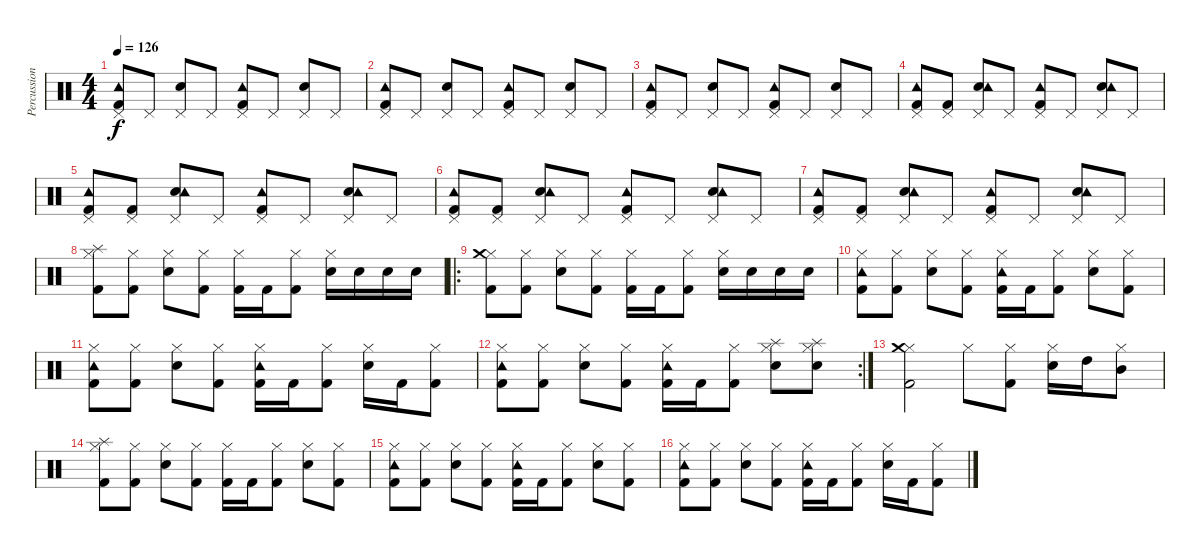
\track ("Percussion" "Percussion") {instrument percussion}
\staff {score}
\articulation defaults
\ts (4 4)
\tempo 126
\clef neutral
\ks c
("Kick (hit) 2" "Pedal Hi-Hat (hit)" "Tambourine (hit)").8{dy f} "Pedal Hi-Hat (hit)".8 ("Electric Snare (hit)" "Pedal Hi-Hat (hit)").8 "Pedal Hi-Hat (hit)".8 ("Kick (hit) 2" "Pedal Hi-Hat (hit)" "Tambourine (hit)").8 "Pedal Hi-Hat (hit)".8 ("Electric Snare (hit)" "Pedal Hi-Hat (hit)").8 "Pedal Hi-Hat (hit)".8 |
("Kick (hit) 2" "Pedal Hi-Hat (hit)" "Tambourine (hit)").8 "Pedal Hi-Hat (hit)".8 ("Electric Snare (hit)" "Pedal Hi-Hat (hit)").8 "Pedal Hi-Hat (hit)".8 ("Kick (hit) 2" "Pedal Hi-Hat (hit)" "Tambourine (hit)").8 "Pedal Hi-Hat (hit)".8 ("Electric Snare (hit)" "Pedal Hi-Hat (hit)").8 "Pedal Hi-Hat (hit)".8 |
("Kick (hit) 2" "Pedal Hi-Hat (hit)" "Tambourine (hit)").8 "Pedal Hi-Hat (hit)".8 ("Electric Snare (hit)" "Pedal Hi-Hat (hit)").8 "Pedal Hi-Hat (hit)".8 ("Kick (hit) 2" "Pedal Hi-Hat (hit)" "Tambourine (hit)").8 "Pedal Hi-Hat (hit)".8 ("Electric Snare (hit)" "Pedal Hi-Hat (hit)").8 "Pedal Hi-Hat (hit)".8 |
("Kick (hit) 2" "Pedal Hi-Hat (hit)" "Tambourine (hit)").8 ("Kick (hit) 2" "Pedal Hi-Hat (hit)").8 ("Electric Snare (hit)" "Pedal Hi-Hat (hit)" "Tambourine (hit)").8 "Pedal Hi-Hat (hit)".8 ("Kick (hit) 2" "Pedal Hi-Hat (hit)" "Tambourine (hit)").8 "Pedal Hi-Hat (hit)".8 ("Electric Snare (hit)" "Pedal Hi-Hat (hit)" "Tambourine (hit)").8 "Pedal Hi-Hat (hit)".8 |
("Kick (hit) 2" "Pedal Hi-Hat (hit)" "Tambourine (hit)").8 ("Kick (hit) 2" "Pedal Hi-Hat (hit)").8 ("Electric Snare (hit)" "Pedal Hi-Hat (hit)" "Tambourine (hit)").8 "Pedal Hi-Hat (hit)".8 ("Kick (hit) 2" "Pedal Hi-Hat (hit)" "Tambourine (hit)").8 "Pedal Hi-Hat (hit)".8 ("Electric Snare (hit)" "Pedal Hi-Hat (hit)" "Tambourine (hit)").8 "Pedal Hi-Hat (hit)".8 |
("Kick (hit) 2" "Pedal Hi-Hat (hit)" "Tambourine (hit)").8 ("Kick (hit) 2" "Pedal Hi-Hat (hit)").8 ("Electric Snare (hit)" "Pedal Hi-Hat (hit)" "Tambourine (hit)").8 "Pedal Hi-Hat (hit)".8 ("Kick (hit) 2" "Pedal Hi-Hat (hit)" "Tambourine (hit)").8 "Pedal Hi-Hat (hit)".8 ("Electric Snare (hit)" "Pedal Hi-Hat (hit)" "Tambourine (hit)").8 "Pedal Hi-Hat (hit)".8 |
("Kick (hit) 2" "Pedal Hi-Hat (hit)" "Tambourine (hit)").8 ("Kick (hit) 2" "Pedal Hi-Hat (hit)").8 ("Electric Snare (hit)" "Pedal Hi-Hat (hit)" "Tambourine (hit)").8 "Pedal Hi-Hat (hit)".8 ("Kick (hit) 2" "Pedal Hi-Hat (hit)" "Tambourine (hit)").8 "Pedal Hi-Hat (hit)".8 ("Electric Snare (hit)" "Pedal Hi-Hat (hit)" "Tambourine (hit)").8 "Pedal Hi-Hat (hit)".8 |
("Hi-Hat (closed)" "Kick (hit) 2" "Splash (hit)").8 ("Hi-Hat (closed)" "Kick (hit) 2").8 ("Hi-Hat (closed)" "Electric Snare (hit)").8 ("Hi-Hat (closed)" "Kick (hit) 2").8 ("Hi-Hat (closed)" "Kick (hit) 2").16 "Kick (hit) 2".16 ("Hi-Hat (closed)" "Kick (hit) 2").8 ("Hi-Hat (closed)" "Electric Snare (hit)").16 "Electric Snare (hit)".16 "Electric Snare (hit)".16 "Electric Snare (hit)".16 |
\ro
("Hi-Hat (closed)" "Kick (hit) 2" "Crash medium (hit)").8 ("Hi-Hat (closed)" "Kick (hit) 2").8 ("Hi-Hat (closed)" "Electric Snare (hit)").8 ("Hi-Hat (closed)" "Kick (hit) 2").8 ("Hi-Hat (closed)" "Kick (hit) 2").16 "Kick (hit) 2".16 ("Hi-Hat (closed)" "Kick (hit) 2").8 ("Hi-Hat (closed)" "Electric Snare (hit)").16 "Electric Snare (hit)".16 "Electric Snare (hit)".16 "Electric Snare (hit)".16 |
("Hi-Hat (closed)" "Kick (hit) 2" "Tambourine (hit)").8 ("Hi-Hat (closed)" "Kick (hit) 2").8 ("Hi-Hat (closed)" "Electric Snare (hit)").8 ("Hi-Hat (closed)" "Kick (hit) 2").8 ("Hi-Hat (closed)" "Kick (hit) 2" "Tambourine (hit)").16 "Kick (hit) 2".16 ("Hi-Hat (closed)" "Kick (hit) 2").8 ("Hi-Hat (closed)" "Electric Snare (hit)").8 ("Hi-Hat (closed)" "Kick (hit) 2").8 |
("Hi-Hat (closed)" "Kick (hit) 2" "Tambourine (hit)").8 ("Hi-Hat (closed)" "Kick (hit) 2").8 ("Hi-Hat (closed)" "Electric Snare (hit)").8 ("Hi-Hat (closed)" "Kick (hit) 2").8 ("Hi-Hat (closed)" "Kick (hit) 2" "Tambourine (hit)").16 "Kick (hit) 2".16 ("Hi-Hat (closed)" "Kick (hit) 2").8 ("Hi-Hat (closed)" "Electric Snare (hit)").16 "Kick (hit) 2".16 ("Hi-Hat (closed)" "Kick (hit) 2").8 |
\rc 2
("Hi-Hat (closed)" "Kick (hit) 2" "Tambourine (hit)").8 ("Hi-Hat (closed)" "Kick (hit) 2").8 ("Hi-Hat (closed)" "Electric Snare (hit)").8 ("Hi-Hat (closed)" "Kick (hit) 2").8 ("Hi-Hat (closed)" "Kick (hit) 2" "Tambourine (hit)").16 "Kick (hit) 2".16 ("Hi-Hat (closed)" "Kick (hit) 2").8 ("Hi-Hat (closed)" "Electric Snare (hit)" "Splash (hit)").8 ("Hi-Hat (closed)" "Electric Snare (hit)" "Splash (hit)").8 |
("Hi-Hat (closed)" "Kick (hit) 2" "Crash medium (hit)").2 "Hi-Hat (closed)".8 ("Hi-Hat (closed)" "Kick (hit) 2").8 ("Hi-Hat (closed)" "Electric Snare (hit)").16 "High Tom (hit)".16 ("Hi-Hat (closed)" "Mid Tom (hit)").8 |
("Hi-Hat (closed)" "Kick (hit) 2" "Splash (hit)").8 ("Hi-Hat (closed)" "Kick (hit) 2").8 ("Hi-Hat (closed)" "Electric Snare (hit)").8 ("Hi-Hat (closed)" "Kick (hit) 2").8 ("Hi-Hat (closed)" "Kick (hit) 2").16 "Kick (hit) 2".16 ("Hi-Hat (closed)" "Kick (hit) 2").8 ("Hi-Hat (closed)" "Electric Snare (hit)").8 ("Hi-Hat (closed)" "Kick (hit) 2").8 |
("Hi-Hat (closed)" "Kick (hit) 2" "Tambourine (hit)").8 ("Hi-Hat (closed)" "Kick (hit) 2").8 ("Hi-Hat (closed)" "Electric Snare (hit)").8 ("Hi-Hat (closed)" "Kick (hit) 2").8 ("Hi-Hat (closed)" "Kick (hit) 2" "Tambourine (hit)").16 "Kick (hit) 2".16 ("Hi-Hat (closed)" "Kick (hit) 2").8 ("Hi-Hat (closed)" "Electric Snare (hit)").8 ("Hi-Hat (closed)" "Kick (hit) 2").8 |
("Hi-Hat (closed)" "Kick (hit) 2" "Tambourine (hit)").8 ("Hi-Hat (closed)" "Kick (hit) 2").8 ("Hi-Hat (closed)" "Electric Snare (hit)").8 ("Hi-Hat (closed)" "Kick (hit) 2").8 ("Hi-Hat (closed)" "Kick (hit) 2" "Tambourine (hit)").16 "Kick (hit) 2".16 ("Hi-Hat (closed)" "Kick (hit) 2").8 ("Hi-Hat (closed)" "Electric Snare (hit)").16 "Kick (hit) 2".16 ("Hi-Hat (closed)" "Kick (hit) 2").8
